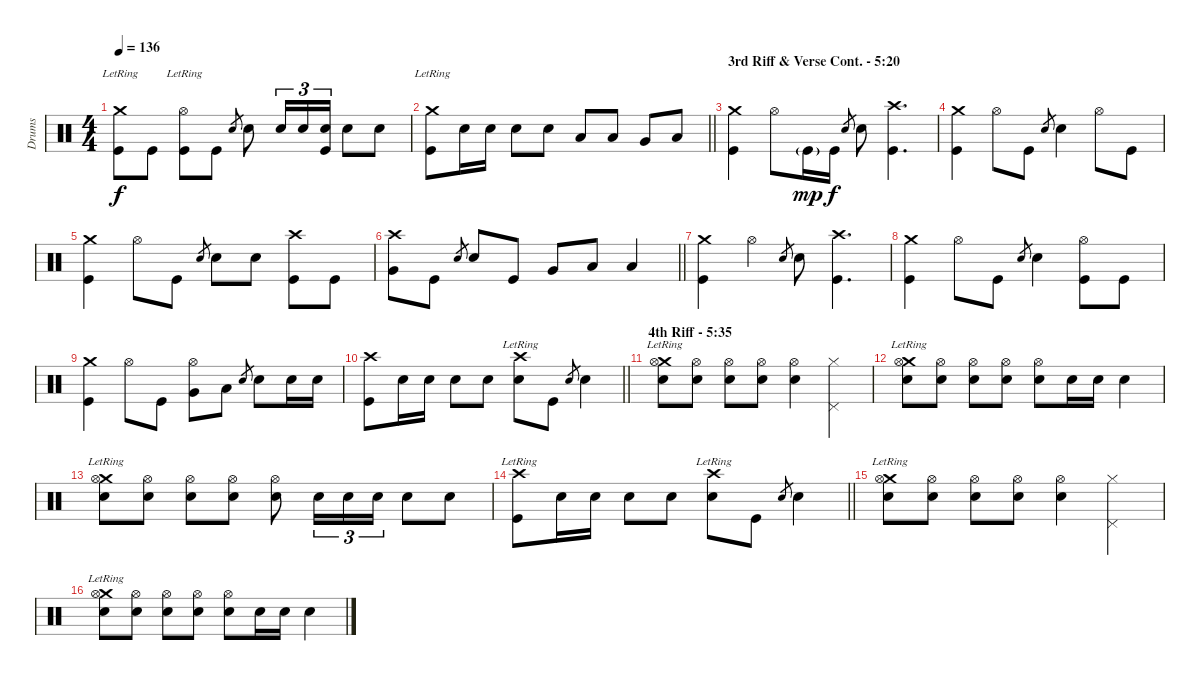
\track ("Drums" "Drums") {instrument percussion}
\staff {score}
\articulation defaults
\ts (4 4)
\tempo 136
\clef neutral
\ks c
("Crash medium (hit)"{lr} "Kick (hit)").8{dy f} "Kick (hit)".8 ("Hi-Hat (open)"{lr} "Kick (hit)").8 "Kick (hit)".8 "Snare (hit) 2".8{gr} "Snare (hit) 2".8 "Snare (hit) 2".16{tu (3 2)} "Snare (hit) 2".16{tu (3 2)} ("Snare (hit) 2" "Kick (hit)").16{tu (3 2)} "Snare (hit) 2".8 "Snare (hit) 2".8 |
\barLineRight lightlight
("Crash medium (hit)"{lr} "Kick (hit)").8 "Snare (hit) 2".16 "Snare (hit) 2".16 "Snare (hit) 2".8 "Snare (hit) 2".8 "Low Tom (hit)".8 "Low Tom (hit)".8 "Very Low Tom (hit)".8 "Low Floor Tom (hit)".8 |
\section ("" "3rd Riff & Verse Cont. - 5:20")
("Crash medium (hit)" "Kick (hit)").4 "Hi-Hat (open)".8 "Kick (hit)"{g}.16{dy mp} "Kick (hit)".16{dy f} "Snare (hit) 2".8{gr} "Snare (hit) 2".8 ("Crash high (hit)" "Kick (hit)").4{d} |
("Crash medium (hit)" "Kick (hit)").4 "Hi-Hat (open)".8 "Kick (hit)".8 "Snare (hit) 2".8{gr} "Snare (hit) 2".4 "Hi-Hat (open)".8 "Kick (hit)".8 |
("Crash medium (hit)" "Kick (hit)").4 "Hi-Hat (open)".8 "Kick (hit)".8 "Snare (hit) 2".8{gr} "Snare (hit) 2".8 "Snare (hit) 2".8 ("Crash high (hit)" "Kick (hit)").8 "Kick (hit)".8 |
\barLineRight lightlight
("Crash high (hit)" "Very Low Tom (hit)").8 "Kick (hit)".8 "Snare (hit) 2".8{gr} "Snare (hit) 2".8 "Kick (hit)".8 "Very Low Tom (hit)".8 "Low Tom (hit)".8 "Low Floor Tom (hit)".4 |
("Crash medium (hit)" "Kick (hit)").4 "Hi-Hat (open)".4 "Snare (hit) 2".8{gr} "Snare (hit) 2".8 ("Crash high (hit)" "Kick (hit)").4{d} |
("Crash medium (hit)" "Kick (hit)").4 "Hi-Hat (open)".8 "Kick (hit)".8 "Snare (hit) 2".8{gr} "Snare (hit) 2".4 ("Hi-Hat (open)" "Kick (hit)").8 "Kick (hit)".8 |
("Crash medium (hit)" "Kick (hit)").4 "Hi-Hat (open)".8 "Kick (hit)".8 ("Hi-Hat (open)" "Very Low Tom (hit)").8 "Low Floor Tom (hit)".8 "Snare (hit) 2".8{gr} "Snare (hit) 2".8 "Snare (hit) 2".16 "Snare (hit) 2".16 |
\barLineRight lightlight
("Crash high (hit)" "Kick (hit)").8 "Snare (hit) 2".16 "Snare (hit) 2".16 "Snare (hit) 2".8 "Snare (hit) 2".8 ("Crash high (hit)"{lr} "Snare (hit) 2").8 "Kick (hit)".8 "Snare (hit) 2".8{gr} "Snare (hit) 2".4 |
\section ("" "4th Riff - 5:35")
("Crash medium (hit)"{lr} "Hi-Hat (open)" "Snare (hit) 2").8 ("Hi-Hat (open)" "Snare (hit) 2").8 ("Hi-Hat (open)" "Snare (hit) 2").8 ("Hi-Hat (open)" "Snare (hit) 2").8 ("Hi-Hat (open)" "Snare (hit) 2").4 ("Pedal Hi-Hat (hit)" "Hi-Hat (closed)").4 |
("Crash medium (hit)"{lr} "Hi-Hat (open)" "Snare (hit) 2").8 ("Hi-Hat (open)" "Snare (hit) 2").8 ("Hi-Hat (open)" "Snare (hit) 2").8 ("Hi-Hat (open)" "Snare (hit) 2").8 ("Hi-Hat (open)" "Snare (hit) 2").8 "Snare (hit) 2".16 "Snare (hit) 2".16 "Snare (hit) 2".4 |
("Crash medium (hit)"{lr} "Hi-Hat (open)" "Snare (hit) 2").8 ("Hi-Hat (open)" "Snare (hit) 2").8 ("Hi-Hat (open)" "Snare (hit) 2").8 ("Hi-Hat (open)" "Snare (hit) 2").8 ("Hi-Hat (open)" "Snare (hit) 2").8 "Snare (hit) 2".16{tu (3 2)} "Snare (hit) 2".16{tu (3 2)} "Snare (hit) 2".16{tu (3 2)} "Snare (hit) 2".8 "Snare (hit) 2".8 |
\barLineRight lightlight
("Crash high (hit)"{lr} "Kick (hit)").8 "Snare (hit) 2".16 "Snare (hit) 2".16 "Snare (hit) 2".8 "Snare (hit) 2".8 ("Crash high (hit)"{lr} "Snare (hit) 2").8 "Kick (hit)".8 "Snare (hit) 2".8{gr} "Snare (hit) 2".4 |
("Crash medium (hit)"{lr} "Hi-Hat (open)" "Snare (hit) 2").8 ("Hi-Hat (open)" "Snare (hit) 2").8 ("Hi-Hat (open)" "Snare (hit) 2").8 ("Hi-Hat (open)" "Snare (hit) 2").8 ("Hi-Hat (open)" "Snare (hit) 2").4 ("Pedal Hi-Hat (hit)" "Hi-Hat (closed)").4 |
("Crash medium (hit)"{lr} "Hi-Hat (open)" "Snare (hit) 2").8 ("Hi-Hat (open)" "Snare (hit) 2").8 ("Hi-Hat (open)" "Snare (hit) 2").8 ("Hi-Hat (open)" "Snare (hit) 2").8 ("Hi-Hat (open)" "Snare (hit) 2").8 "Snare (hit) 2".16 "Snare (hit) 2".16 "Snare (hit) 2".4
